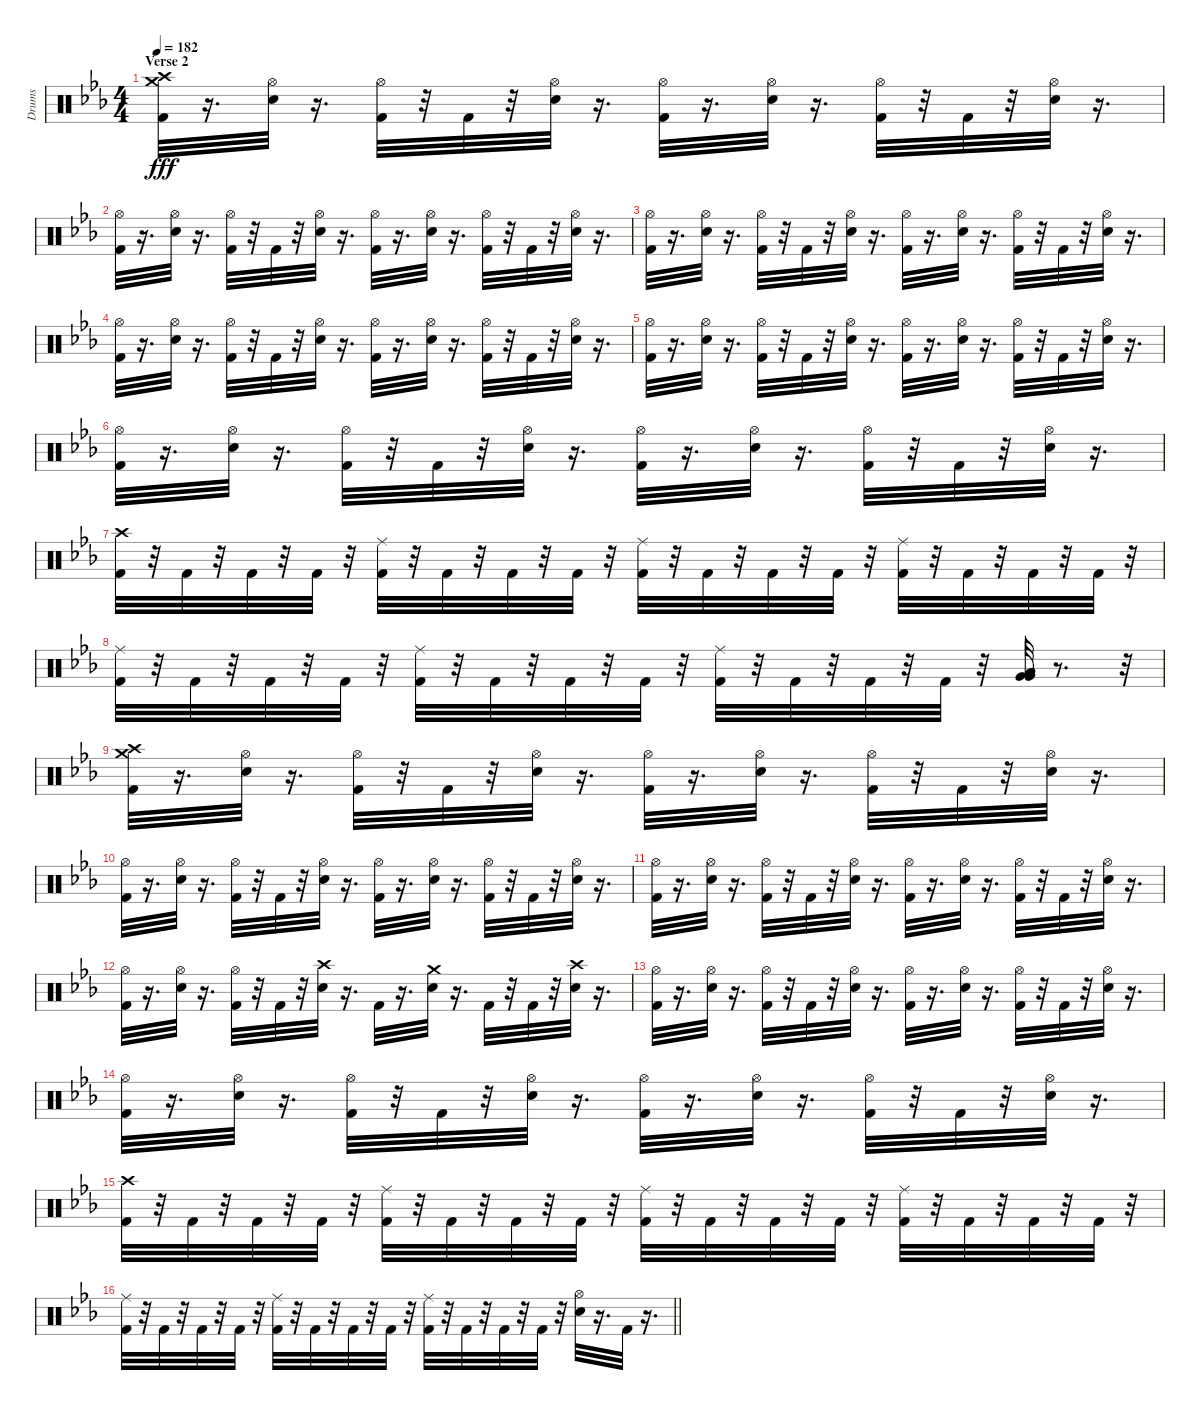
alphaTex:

\track ("Drums" "Drums") {instrument percussion}
\staff {score}
\articulation defaults
\ts (4 4)
\section ("" "Verse 2")
\tempo 182
\clef neutral
\ks cminor
("Crash medium (hit)" "Crash high (hit)" "Kick (hit) 2").32{dy fff} r.16{d} ("Hi-Hat (open)" "Snare (hit) 2").32 r.16{d} ("Hi-Hat (open)" "Kick (hit) 2").32 r.32 "Kick (hit) 2".32 r.32 ("Hi-Hat (open)" "Snare (hit) 2").32 r.16{d} ("Hi-Hat (open)" "Kick (hit) 2").32 r.16{d} ("Hi-Hat (open)" "Snare (hit) 2").32 r.16{d} ("Hi-Hat (open)" "Kick (hit) 2").32 r.32 "Kick (hit) 2".32 r.32 ("Hi-Hat (open)" "Snare (hit) 2").32 r.16{d} |
("Hi-Hat (open)" "Kick (hit) 2").32 r.16{d} ("Hi-Hat (open)" "Snare (hit) 2").32 r.16{d} ("Hi-Hat (open)" "Kick (hit) 2").32 r.32 "Kick (hit) 2".32 r.32 ("Hi-Hat (open)" "Snare (hit) 2").32 r.16{d} ("Hi-Hat (open)" "Kick (hit) 2").32 r.16{d} ("Hi-Hat (open)" "Snare (hit) 2").32 r.16{d} ("Hi-Hat (open)" "Kick (hit) 2").32 r.32 "Kick (hit) 2".32 r.32 ("Hi-Hat (open)" "Snare (hit) 2").32 r.16{d} |
("Hi-Hat (open)" "Kick (hit) 2").32 r.16{d} ("Hi-Hat (open)" "Snare (hit) 2").32 r.16{d} ("Hi-Hat (open)" "Kick (hit) 2").32 r.32 "Kick (hit) 2".32 r.32 ("Hi-Hat (open)" "Snare (hit) 2").32 r.16{d} ("Hi-Hat (open)" "Kick (hit) 2").32 r.16{d} ("Hi-Hat (open)" "Snare (hit) 2").32 r.16{d} ("Hi-Hat (open)" "Kick (hit) 2").32 r.32 "Kick (hit) 2".32 r.32 ("Hi-Hat (open)" "Snare (hit) 2").32 r.16{d} |
("Hi-Hat (open)" "Kick (hit) 2").32 r.16{d} ("Hi-Hat (open)" "Snare (hit) 2").32 r.16{d} ("Hi-Hat (open)" "Kick (hit) 2").32 r.32 "Kick (hit) 2".32 r.32 ("Hi-Hat (open)" "Snare (hit) 2").32 r.16{d} ("Hi-Hat (open)" "Kick (hit) 2").32 r.16{d} ("Hi-Hat (open)" "Snare (hit) 2").32 r.16{d} ("Hi-Hat (open)" "Kick (hit) 2").32 r.32 "Kick (hit) 2".32 r.32 ("Hi-Hat (open)" "Snare (hit) 2").32 r.16{d} |
("Hi-Hat (open)" "Kick (hit) 2").32 r.16{d} ("Hi-Hat (open)" "Snare (hit) 2").32 r.16{d} ("Hi-Hat (open)" "Kick (hit) 2").32 r.32 "Kick (hit) 2".32 r.32 ("Hi-Hat (open)" "Snare (hit) 2").32 r.16{d} ("Hi-Hat (open)" "Kick (hit) 2").32 r.16{d} ("Hi-Hat (open)" "Snare (hit) 2").32 r.16{d} ("Hi-Hat (open)" "Kick (hit) 2").32 r.32 "Kick (hit) 2".32 r.32 ("Hi-Hat (open)" "Snare (hit) 2").32 r.16{d} |
("Hi-Hat (open)" "Kick (hit) 2").32 r.16{d} ("Hi-Hat (open)" "Snare (hit) 2").32 r.16{d} ("Hi-Hat (open)" "Kick (hit) 2").32 r.32 "Kick (hit) 2".32 r.32 ("Hi-Hat (open)" "Snare (hit) 2").32 r.16{d} ("Hi-Hat (open)" "Kick (hit) 2").32 r.16{d} ("Hi-Hat (open)" "Snare (hit) 2").32 r.16{d} ("Hi-Hat (open)" "Kick (hit) 2").32 r.32 "Kick (hit) 2".32 r.32 ("Hi-Hat (open)" "Snare (hit) 2").32 r.16{d} |
("Crash high (hit)" "Kick (hit) 2").32 r.32 "Kick (hit) 2".32 r.32 "Kick (hit) 2".32 r.32 "Kick (hit) 2".32 r.32 ("Ride (middle)" "Kick (hit) 2").32 r.32 "Kick (hit) 2".32 r.32 "Kick (hit) 2".32 r.32 "Kick (hit) 2".32 r.32 ("Ride (middle)" "Kick (hit) 2").32 r.32 "Kick (hit) 2".32 r.32 "Kick (hit) 2".32 r.32 "Kick (hit) 2".32 r.32 ("Ride (middle)" "Kick (hit) 2").32 r.32 "Kick (hit) 2".32 r.32 "Kick (hit) 2".32 r.32 "Kick (hit) 2".32 r.32 |
("Ride (middle)" "Kick (hit) 2").32 r.32 "Kick (hit) 2".32 r.32 "Kick (hit) 2".32 r.32 "Kick (hit) 2".32 r.32 ("Ride (middle)" "Kick (hit) 2").32 r.32 "Kick (hit) 2".32 r.32 "Kick (hit) 2".32 r.32 "Kick (hit) 2".32 r.32 ("Ride (middle)" "Kick (hit) 2").32 r.32 "Kick (hit) 2".32 r.32 "Kick (hit) 2".32 r.32 "Kick (hit) 2".32 r.32 ("Very Low Tom (hit)" "Low Floor Tom (hit)" "Very Low Tom (hit)" "Low Floor Tom (hit)").32 r.8{d} r.32 |
("Kick (hit) 2" "Crash medium (hit)" "Crash high (hit)").32 r.16{d} ("Hi-Hat (open)" "Snare (hit) 2").32 r.16{d} ("Hi-Hat (open)" "Kick (hit) 2").32 r.32 "Kick (hit) 2".32 r.32 ("Hi-Hat (open)" "Snare (hit) 2").32 r.16{d} ("Hi-Hat (open)" "Kick (hit) 2").32 r.16{d} ("Hi-Hat (open)" "Snare (hit) 2").32 r.16{d} ("Hi-Hat (open)" "Kick (hit) 2").32 r.32 "Kick (hit) 2".32 r.32 ("Hi-Hat (open)" "Snare (hit) 2").32 r.16{d} |
("Hi-Hat (open)" "Kick (hit) 2").32 r.16{d} ("Hi-Hat (open)" "Snare (hit) 2").32 r.16{d} ("Hi-Hat (open)" "Kick (hit) 2").32 r.32 "Kick (hit) 2".32 r.32 ("Hi-Hat (open)" "Snare (hit) 2").32 r.16{d} ("Hi-Hat (open)" "Kick (hit) 2").32 r.16{d} ("Hi-Hat (open)" "Snare (hit) 2").32 r.16{d} ("Hi-Hat (open)" "Kick (hit) 2").32 r.32 "Kick (hit) 2".32 r.32 ("Hi-Hat (open)" "Snare (hit) 2").32 r.16{d} |
("Hi-Hat (open)" "Kick (hit) 2").32 r.16{d} ("Hi-Hat (open)" "Snare (hit) 2").32 r.16{d} ("Hi-Hat (open)" "Kick (hit) 2").32 r.32 "Kick (hit) 2".32 r.32 ("Hi-Hat (open)" "Snare (hit) 2").32 r.16{d} ("Hi-Hat (open)" "Kick (hit) 2").32 r.16{d} ("Hi-Hat (open)" "Snare (hit) 2").32 r.16{d} ("Hi-Hat (open)" "Kick (hit) 2").32 r.32 "Kick (hit) 2".32 r.32 ("Hi-Hat (open)" "Snare (hit) 2").32 r.16{d} |
("Hi-Hat (open)" "Kick (hit) 2").32 r.16{d} ("Hi-Hat (open)" "Snare (hit) 2").32 r.16{d} ("Hi-Hat (open)" "Kick (hit) 2").32 r.32 "Kick (hit) 2".32 r.32 ("Crash high (hit)" "Snare (hit) 2").32 r.16{d} "Kick (hit) 2".32 r.16{d} ("Crash medium (hit)" "Snare (hit) 2").32 r.16{d} "Kick (hit) 2".32 r.32 "Kick (hit) 2".32 r.32 ("Crash high (hit)" "Snare (hit) 2").32 r.16{d} |
("Hi-Hat (open)" "Kick (hit) 2").32 r.16{d} ("Hi-Hat (open)" "Snare (hit) 2").32 r.16{d} ("Hi-Hat (open)" "Kick (hit) 2").32 r.32 "Kick (hit) 2".32 r.32 ("Hi-Hat (open)" "Snare (hit) 2").32 r.16{d} ("Hi-Hat (open)" "Kick (hit) 2").32 r.16{d} ("Hi-Hat (open)" "Snare (hit) 2").32 r.16{d} ("Hi-Hat (open)" "Kick (hit) 2").32 r.32 "Kick (hit) 2".32 r.32 ("Hi-Hat (open)" "Snare (hit) 2").32 r.16{d} |
("Hi-Hat (open)" "Kick (hit) 2").32 r.16{d} ("Hi-Hat (open)" "Snare (hit) 2").32 r.16{d} ("Hi-Hat (open)" "Kick (hit) 2").32 r.32 "Kick (hit) 2".32 r.32 ("Hi-Hat (open)" "Snare (hit) 2").32 r.16{d} ("Hi-Hat (open)" "Kick (hit) 2").32 r.16{d} ("Hi-Hat (open)" "Snare (hit) 2").32 r.16{d} ("Hi-Hat (open)" "Kick (hit) 2").32 r.32 "Kick (hit) 2".32 r.32 ("Hi-Hat (open)" "Snare (hit) 2").32 r.16{d} |
("Crash high (hit)" "Kick (hit) 2").32 r.32 "Kick (hit) 2".32 r.32 "Kick (hit) 2".32 r.32 "Kick (hit) 2".32 r.32 ("Ride (middle)" "Kick (hit) 2").32 r.32 "Kick (hit) 2".32 r.32 "Kick (hit) 2".32 r.32 "Kick (hit) 2".32 r.32 ("Ride (middle)" "Kick (hit) 2").32 r.32 "Kick (hit) 2".32 r.32 "Kick (hit) 2".32 r.32 "Kick (hit) 2".32 r.32 ("Ride (middle)" "Kick (hit) 2").32 r.32 "Kick (hit) 2".32 r.32 "Kick (hit) 2".32 r.32 "Kick (hit) 2".32 r.32 |
\barLineRight lightlight
("Ride (middle)" "Kick (hit) 2").32 r.32 "Kick (hit) 2".32 r.32 "Kick (hit) 2".32 r.32 "Kick (hit) 2".32 r.32 ("Ride (middle)" "Kick (hit) 2").32 r.32 "Kick (hit) 2".32 r.32 "Kick (hit) 2".32 r.32 "Kick (hit) 2".32 r.32 ("Ride (middle)" "Kick (hit) 2").32 r.32 "Kick (hit) 2".32 r.32 "Kick (hit) 2".32 r.32 "Kick (hit) 2".32 r.32 ("Hi-Hat (open)" "Snare (hit) 2").32 r.16{d} "Kick (hit) 2".32 r.16{d}
